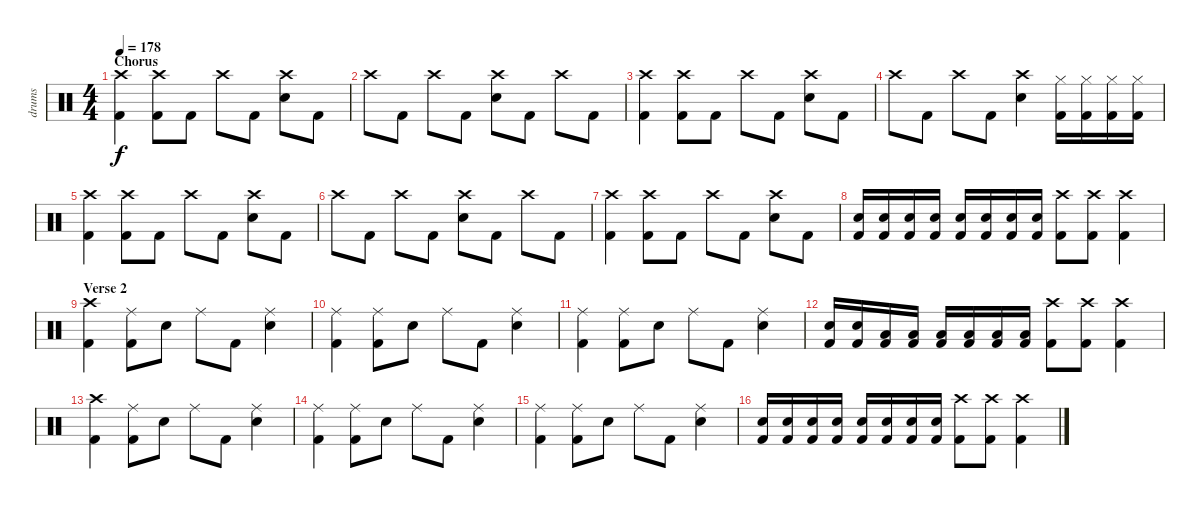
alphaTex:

\track ("drums" "drums") {instrument percussion}
\staff {score}
\articulation defaults
\ts (4 4)
\section ("" "Chorus")
\tempo 178
\clef neutral
\ks c
("Crash high (hit)" "Kick (hit) 2").4{dy f} ("Crash high (hit)" "Kick (hit) 2").8 "Kick (hit) 2".8 "Crash high (hit)".8 "Kick (hit) 2".8 ("Crash high (hit)" "Electric Snare (hit)").8 "Kick (hit) 2".8 |
"Crash high (hit)".8 "Kick (hit) 2".8 "Crash high (hit)".8 "Kick (hit) 2".8 ("Crash high (hit)" "Electric Snare (hit)").8 "Kick (hit) 2".8 "Crash high (hit)".8 "Kick (hit) 2".8 |
("Crash high (hit)" "Kick (hit) 2").4 ("Crash high (hit)" "Kick (hit) 2").8 "Kick (hit) 2".8 "Crash high (hit)".8 "Kick (hit) 2".8 ("Crash high (hit)" "Electric Snare (hit)").8 "Kick (hit) 2".8 |
"Crash high (hit)".8 "Kick (hit) 2".8 "Crash high (hit)".8 "Kick (hit) 2".8 ("Crash high (hit)" "Electric Snare (hit)").4 ("Hi-Hat (closed)" "Kick (hit) 2").16 ("Hi-Hat (closed)" "Kick (hit) 2").16 ("Hi-Hat (closed)" "Kick (hit) 2").16 ("Hi-Hat (closed)" "Kick (hit) 2").16 |
("Crash high (hit)" "Kick (hit) 2").4 ("Crash high (hit)" "Kick (hit) 2").8 "Kick (hit) 2".8 "Crash high (hit)".8 "Kick (hit) 2".8 ("Crash high (hit)" "Electric Snare (hit)").8 "Kick (hit) 2".8 |
"Crash high (hit)".8 "Kick (hit) 2".8 "Crash high (hit)".8 "Kick (hit) 2".8 ("Crash high (hit)" "Electric Snare (hit)").8 "Kick (hit) 2".8 "Crash high (hit)".8 "Kick (hit) 2".8 |
("Crash high (hit)" "Kick (hit) 2").4 ("Crash high (hit)" "Kick (hit) 2").8 "Kick (hit) 2".8 "Crash high (hit)".8 "Kick (hit) 2".8 ("Crash high (hit)" "Electric Snare (hit)").8 "Kick (hit) 2".8 |
("Electric Snare (hit)" "Kick (hit) 2").16 ("Electric Snare (hit)" "Kick (hit) 2").16 ("Electric Snare (hit)" "Kick (hit) 2").16 ("Electric Snare (hit)" "Kick (hit) 2").16 ("Electric Snare (hit)" "Kick (hit) 2").16 ("Electric Snare (hit)" "Kick (hit) 2").16 ("Electric Snare (hit)" "Kick (hit) 2").16 ("Electric Snare (hit)" "Kick (hit) 2").16 ("Crash high (hit)" "Kick (hit) 2").8 ("Crash high (hit)" "Kick (hit) 2").8 ("Crash high (hit)" "Kick (hit) 2").4 |
\section ("" "Verse 2")
("Crash high (hit)" "Kick (hit) 2").4 ("Ride (middle)" "Kick (hit) 2").8 "Electric Snare (hit)".8 "Ride (middle)".8 "Kick (hit) 2".8 ("Ride (middle)" "Electric Snare (hit)").4 |
("Ride (middle)" "Kick (hit) 2").4 ("Ride (middle)" "Kick (hit) 2").8 "Electric Snare (hit)".8 "Ride (middle)".8 "Kick (hit) 2".8 ("Ride (middle)" "Electric Snare (hit)").4 |
("Ride (middle)" "Kick (hit) 2").4 ("Ride (middle)" "Kick (hit) 2").8 "Electric Snare (hit)".8 "Ride (middle)".8 "Kick (hit) 2".8 ("Ride (middle)" "Electric Snare (hit)").4 |
("Electric Snare (hit)" "Kick (hit) 2").16 ("Electric Snare (hit)" "Kick (hit) 2").16 ("Low Tom (hit)" "Kick (hit) 2").16 ("Low Tom (hit)" "Kick (hit) 2").16 ("Low Tom (hit)" "Kick (hit) 2").16 ("Low Tom (hit)" "Kick (hit) 2").16 ("Low Tom (hit)" "Kick (hit) 2").16 ("Low Tom (hit)" "Kick (hit) 2").16 ("Crash high (hit)" "Kick (hit) 2").8 ("Crash high (hit)" "Kick (hit) 2").8 ("Crash high (hit)" "Kick (hit) 2").4 |
("Crash high (hit)" "Kick (hit) 2").4 ("Ride (middle)" "Kick (hit) 2").8 "Electric Snare (hit)".8 "Ride (middle)".8 "Kick (hit) 2".8 ("Ride (middle)" "Electric Snare (hit)").4 |
("Ride (middle)" "Kick (hit) 2").4 ("Ride (middle)" "Kick (hit) 2").8 "Electric Snare (hit)".8 "Ride (middle)".8 "Kick (hit) 2".8 ("Ride (middle)" "Electric Snare (hit)").4 |
("Ride (middle)" "Kick (hit) 2").4 ("Ride (middle)" "Kick (hit) 2").8 "Electric Snare (hit)".8 "Ride (middle)".8 "Kick (hit) 2".8 ("Ride (middle)" "Electric Snare (hit)").4 |
("Electric Snare (hit)" "Kick (hit) 2").16 ("Electric Snare (hit)" "Kick (hit) 2").16 ("Electric Snare (hit)" "Kick (hit) 2").16 ("Electric Snare (hit)" "Kick (hit) 2").16 ("Electric Snare (hit)" "Kick (hit) 2").16 ("Electric Snare (hit)" "Kick (hit) 2").16 ("Electric Snare (hit)" "Kick (hit) 2").16 ("Electric Snare (hit)" "Kick (hit) 2").16 ("Crash high (hit)" "Kick (hit) 2").8 ("Crash high (hit)" "Kick (hit) 2").8 ("Crash high (hit)" "Kick (hit) 2").4
